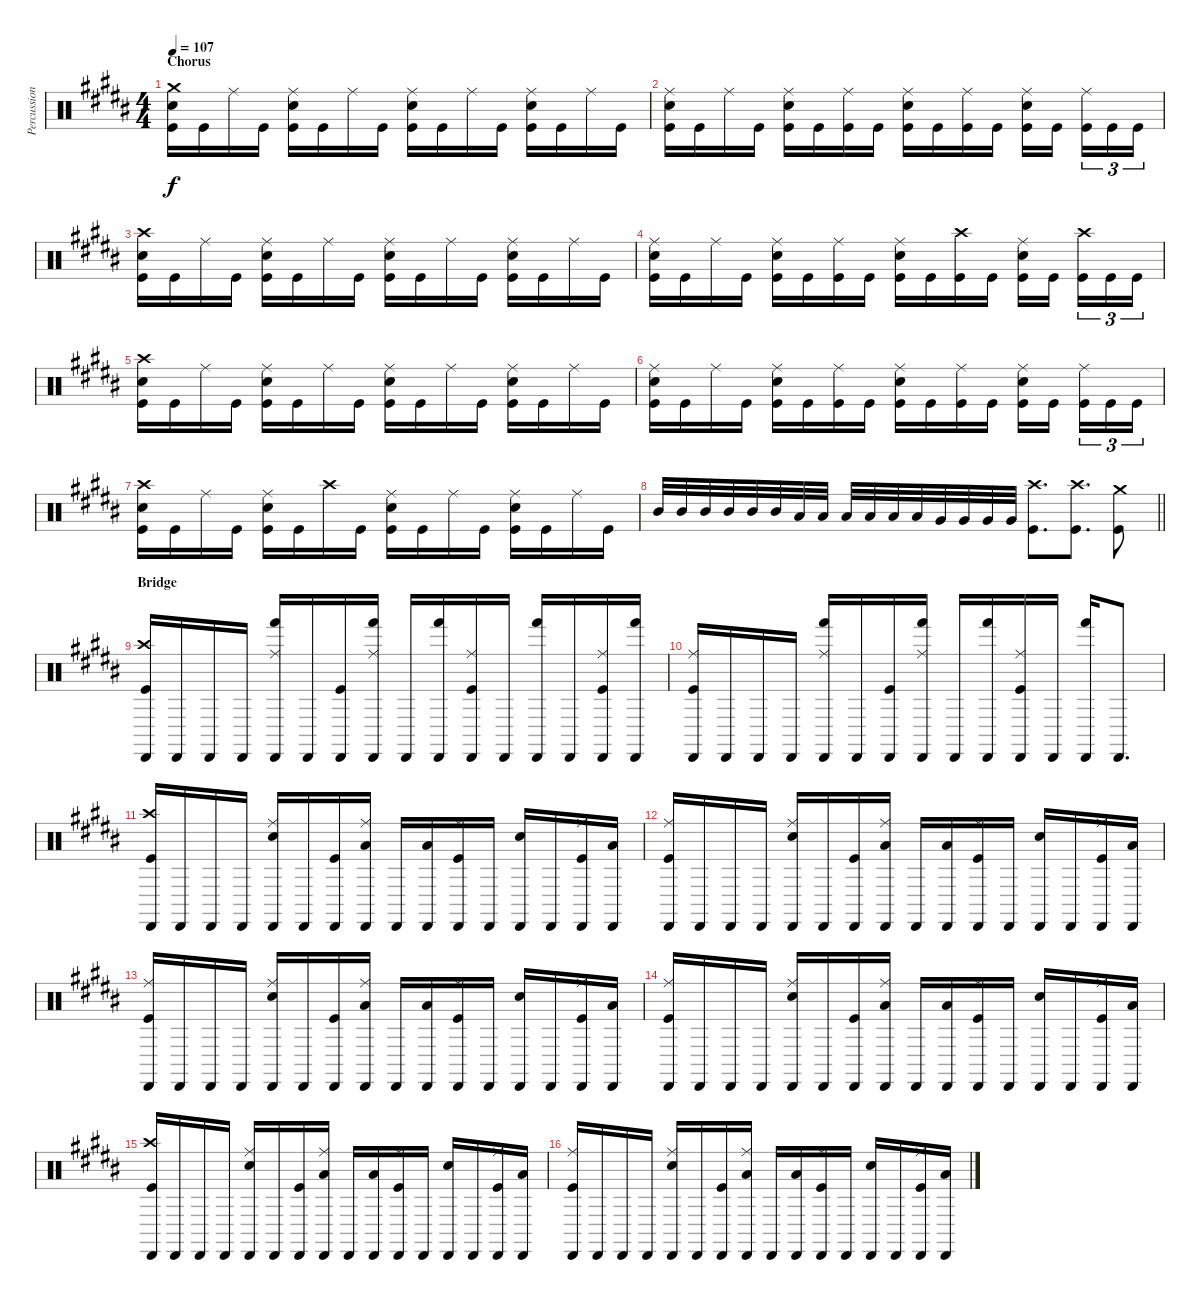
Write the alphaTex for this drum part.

\track ("Percussion" "Percussion") {instrument percussion}
\staff {score}
\articulation defaults
\ts (4 4)
\section ("" "Chorus")
\tempo 107
\clef neutral
\ks b
("Crash medium (hit)" "Electric Snare (hit)" "Kick (hit)").16{dy f} "Kick (hit)".16 "Ride (middle)".16 "Kick (hit)".16 ("Ride (middle)" "Electric Snare (hit)" "Kick (hit)").16 "Kick (hit)".16 "Ride (middle)".16 "Kick (hit)".16 ("Ride (middle)" "Electric Snare (hit)" "Kick (hit)").16 "Kick (hit)".16 "Ride (middle)".16 "Kick (hit)".16 ("Ride (middle)" "Electric Snare (hit)" "Kick (hit)").16 "Kick (hit)".16 "Ride (middle)".16 "Kick (hit)".16 |
("Ride (middle)" "Electric Snare (hit)" "Kick (hit)").16 "Kick (hit)".16 "Ride (middle)".16 "Kick (hit)".16 ("Ride (middle)" "Electric Snare (hit)" "Kick (hit)").16 "Kick (hit)".16 ("Ride (middle)" "Kick (hit)").16 "Kick (hit)".16 ("Ride (middle)" "Electric Snare (hit)" "Kick (hit)").16 "Kick (hit)".16 ("Ride (middle)" "Kick (hit)").16 "Kick (hit)".16 ("Ride (middle)" "Electric Snare (hit)" "Kick (hit)").16 "Kick (hit)".16{beam splitsecondary} ("Ride (middle)" "Kick (hit)").16{tu (3 2)} "Kick (hit)".16{tu (3 2)} "Kick (hit)".16{tu (3 2)} |
("Crash high (hit)" "Electric Snare (hit)" "Kick (hit)").16 "Kick (hit)".16 "Ride (middle)".16 "Kick (hit)".16 ("Ride (middle)" "Electric Snare (hit)" "Kick (hit)").16 "Kick (hit)".16 "Ride (middle)".16 "Kick (hit)".16 ("Ride (middle)" "Electric Snare (hit)" "Kick (hit)").16 "Kick (hit)".16 "Ride (middle)".16 "Kick (hit)".16 ("Ride (middle)" "Electric Snare (hit)" "Kick (hit)").16 "Kick (hit)".16 "Ride (middle)".16 "Kick (hit)".16 |
("Ride (middle)" "Electric Snare (hit)" "Kick (hit)").16 "Kick (hit)".16 "Ride (middle)".16 "Kick (hit)".16 ("Ride (middle)" "Electric Snare (hit)" "Kick (hit)").16 "Kick (hit)".16 ("Ride (middle)" "Kick (hit)").16 "Kick (hit)".16 ("Ride (middle)" "Electric Snare (hit)" "Kick (hit)").16 "Kick (hit)".16 ("Crash high (hit)" "Kick (hit)").16 "Kick (hit)".16 ("Ride (middle)" "Electric Snare (hit)" "Kick (hit)").16 "Kick (hit)".16{beam splitsecondary} ("Crash high (hit)" "Kick (hit)").16{tu (3 2)} "Kick (hit)".16{tu (3 2)} "Kick (hit)".16{tu (3 2)} |
("Crash high (hit)" "Electric Snare (hit)" "Kick (hit)").16 "Kick (hit)".16 "Ride (middle)".16 "Kick (hit)".16 ("Ride (middle)" "Electric Snare (hit)" "Kick (hit)").16 "Kick (hit)".16 "Ride (middle)".16 "Kick (hit)".16 ("Ride (middle)" "Electric Snare (hit)" "Kick (hit)").16 "Kick (hit)".16 "Ride (middle)".16 "Kick (hit)".16 ("Ride (middle)" "Electric Snare (hit)" "Kick (hit)").16 "Kick (hit)".16 "Ride (middle)".16 "Kick (hit)".16 |
("Ride (middle)" "Electric Snare (hit)" "Kick (hit)").16 "Kick (hit)".16 "Ride (middle)".16 "Kick (hit)".16 ("Ride (middle)" "Electric Snare (hit)" "Kick (hit)").16 "Kick (hit)".16 ("Ride (middle)" "Kick (hit)").16 "Kick (hit)".16 ("Ride (middle)" "Electric Snare (hit)" "Kick (hit)").16 "Kick (hit)".16 ("Ride (middle)" "Kick (hit)").16 "Kick (hit)".16 ("Ride (middle)" "Electric Snare (hit)" "Kick (hit)").16 "Kick (hit)".16{beam splitsecondary} ("Ride (middle)" "Kick (hit)").16{tu (3 2)} "Kick (hit)".16{tu (3 2)} "Kick (hit)".16{tu (3 2)} |
("Crash high (hit)" "Electric Snare (hit)" "Kick (hit)").16 "Kick (hit)".16 "Ride (middle)".16 "Kick (hit)".16 ("Ride (middle)" "Electric Snare (hit)" "Kick (hit)").16 "Kick (hit)".16 "Crash high (hit)".16 "Kick (hit)".16 ("Ride (middle)" "Electric Snare (hit)" "Kick (hit)").16 "Kick (hit)".16 "Ride (middle)".16 "Kick (hit)".16 ("Ride (middle)" "Electric Snare (hit)" "Kick (hit)").16 "Kick (hit)".16 "Ride (middle)".16 "Kick (hit)".16 |
\barLineRight lightlight "Mid Tom (hit)".32 "Mid Tom (hit)".32 "Mid Tom (hit)".32 "Mid Tom (hit)".32 "Mid Tom (hit)".32 "Mid Tom (hit)".32 "Low Tom (hit)".32 "Low Tom (hit)".32 "Low Tom (hit)".32 "Low Tom (hit)".32 "Low Tom (hit)".32 "Low Tom (hit)".32 "Very Low Tom (hit)".32 "Very Low Tom (hit)".32 "Very Low Tom (hit)".32 "Very Low Tom (hit)".32
("Crash high (hit)" "Kick (hit)").8{d} ("Crash high (hit)" "Kick (hit)").8{d} ("Crash medium (hit)" "Kick (hit)").8 |
\section ("" "Bridge")
("Crash high (hit)" "Cabasa (hit)" "Kick (hit)").16 "Cabasa (hit)".16 "Cabasa (hit)".16 "Cabasa (hit)".16 ("Cabasa (hit)" "Ride (middle)" "Hand (hit)").16 "Cabasa (hit)".16 ("Cabasa (hit)" "Kick (hit)").16 ("Cabasa (hit)" "Ride (middle)" "Hand (hit)").16 "Cabasa (hit)".16 ("Cabasa (hit)" "Hand (hit)").16 ("Cabasa (hit)" "Ride (middle)" "Kick (hit)").16 "Cabasa (hit)".16 ("Cabasa (hit)" "Hand (hit)").16 "Cabasa (hit)".16 ("Cabasa (hit)" "Ride (middle)" "Kick (hit)").16 ("Cabasa (hit)" "Hand (hit)").16 |
("Cabasa (hit)" "Ride (middle)" "Kick (hit)").16 "Cabasa (hit)".16 "Cabasa (hit)".16 "Cabasa (hit)".16 ("Cabasa (hit)" "Ride (middle)" "Hand (hit)").16 "Cabasa (hit)".16 ("Cabasa (hit)" "Kick (hit)").16 ("Cabasa (hit)" "Ride (middle)" "Hand (hit)").16 "Cabasa (hit)".16 ("Cabasa (hit)" "Hand (hit)").16 ("Cabasa (hit)" "Ride (middle)" "Kick (hit)").16 "Cabasa (hit)".16 ("Cabasa (hit)" "Hand (hit)").16 "Cabasa (hit)".8{d} |
("Crash high (hit)" "Cabasa (hit)" "Kick (hit)").16 "Cabasa (hit)".16 "Cabasa (hit)".16 "Cabasa (hit)".16 ("Cabasa (hit)" "Ride (middle)" "Electric Snare (hit)").16 "Cabasa (hit)".16 ("Cabasa (hit)" "Kick (hit)").16 ("Cabasa (hit)" "Ride (middle)" "Low Floor Tom (hit)").16 "Cabasa (hit)".16 ("Cabasa (hit)" "Low Floor Tom (hit)").16 ("Cabasa (hit)" "Ride (middle)" "Kick (hit)").16 "Cabasa (hit)".16 ("Cabasa (hit)" "Electric Snare (hit)").16 "Cabasa (hit)".16 ("Cabasa (hit)" "Ride (middle)" "Kick (hit)").16 ("Cabasa (hit)" "Low Floor Tom (hit)").16 |
("Cabasa (hit)" "Ride (middle)" "Kick (hit)").16 "Cabasa (hit)".16 "Cabasa (hit)".16 "Cabasa (hit)".16 ("Cabasa (hit)" "Ride (middle)" "Electric Snare (hit)").16 "Cabasa (hit)".16 ("Cabasa (hit)" "Kick (hit)").16 ("Cabasa (hit)" "Ride (middle)" "Low Floor Tom (hit)").16 "Cabasa (hit)".16 ("Cabasa (hit)" "Low Floor Tom (hit)").16 ("Cabasa (hit)" "Ride (middle)" "Kick (hit)").16 "Cabasa (hit)".16 ("Cabasa (hit)" "Electric Snare (hit)").16 "Cabasa (hit)".16 ("Cabasa (hit)" "Ride (middle)" "Kick (hit)").16 ("Cabasa (hit)" "Low Floor Tom (hit)").16 |
("Cabasa (hit)" "Ride (middle)" "Kick (hit)").16 "Cabasa (hit)".16 "Cabasa (hit)".16 "Cabasa (hit)".16 ("Cabasa (hit)" "Ride (middle)" "Electric Snare (hit)").16 "Cabasa (hit)".16 ("Cabasa (hit)" "Kick (hit)").16 ("Cabasa (hit)" "Ride (middle)" "Low Floor Tom (hit)").16 "Cabasa (hit)".16 ("Cabasa (hit)" "Low Floor Tom (hit)").16 ("Cabasa (hit)" "Ride (middle)" "Kick (hit)").16 "Cabasa (hit)".16 ("Cabasa (hit)" "Electric Snare (hit)").16 "Cabasa (hit)".16 ("Cabasa (hit)" "Ride (middle)" "Kick (hit)").16 ("Cabasa (hit)" "Low Floor Tom (hit)").16 |
("Cabasa (hit)" "Ride (middle)" "Kick (hit)").16 "Cabasa (hit)".16 "Cabasa (hit)".16 "Cabasa (hit)".16 ("Cabasa (hit)" "Ride (middle)" "Electric Snare (hit)").16 "Cabasa (hit)".16 ("Cabasa (hit)" "Kick (hit)").16 ("Cabasa (hit)" "Ride (middle)" "Low Floor Tom (hit)").16 "Cabasa (hit)".16 ("Cabasa (hit)" "Low Floor Tom (hit)").16 ("Cabasa (hit)" "Ride (middle)" "Kick (hit)").16 "Cabasa (hit)".16 ("Cabasa (hit)" "Electric Snare (hit)").16 "Cabasa (hit)".16 ("Cabasa (hit)" "Ride (middle)" "Kick (hit)").16 ("Cabasa (hit)" "Low Floor Tom (hit)").16 |
("Crash high (hit)" "Cabasa (hit)" "Kick (hit)").16 "Cabasa (hit)".16 "Cabasa (hit)".16 "Cabasa (hit)".16 ("Cabasa (hit)" "Ride (middle)" "Electric Snare (hit)").16 "Cabasa (hit)".16 ("Cabasa (hit)" "Kick (hit)").16 ("Cabasa (hit)" "Ride (middle)" "Low Floor Tom (hit)").16 "Cabasa (hit)".16 ("Cabasa (hit)" "Low Floor Tom (hit)").16 ("Cabasa (hit)" "Ride (middle)" "Kick (hit)").16 "Cabasa (hit)".16 ("Cabasa (hit)" "Electric Snare (hit)").16 "Cabasa (hit)".16 ("Cabasa (hit)" "Ride (middle)" "Kick (hit)").16 ("Cabasa (hit)" "Low Floor Tom (hit)").16 |
("Cabasa (hit)" "Ride (middle)" "Kick (hit)").16 "Cabasa (hit)".16 "Cabasa (hit)".16 "Cabasa (hit)".16 ("Cabasa (hit)" "Ride (middle)" "Electric Snare (hit)").16 "Cabasa (hit)".16 ("Cabasa (hit)" "Kick (hit)").16 ("Cabasa (hit)" "Ride (middle)" "Low Floor Tom (hit)").16 "Cabasa (hit)".16 ("Cabasa (hit)" "Low Floor Tom (hit)").16 ("Cabasa (hit)" "Ride (middle)" "Kick (hit)").16 "Cabasa (hit)".16 ("Cabasa (hit)" "Electric Snare (hit)").16 "Cabasa (hit)".16 ("Cabasa (hit)" "Ride (middle)" "Kick (hit)").16 ("Cabasa (hit)" "Low Floor Tom (hit)").16
